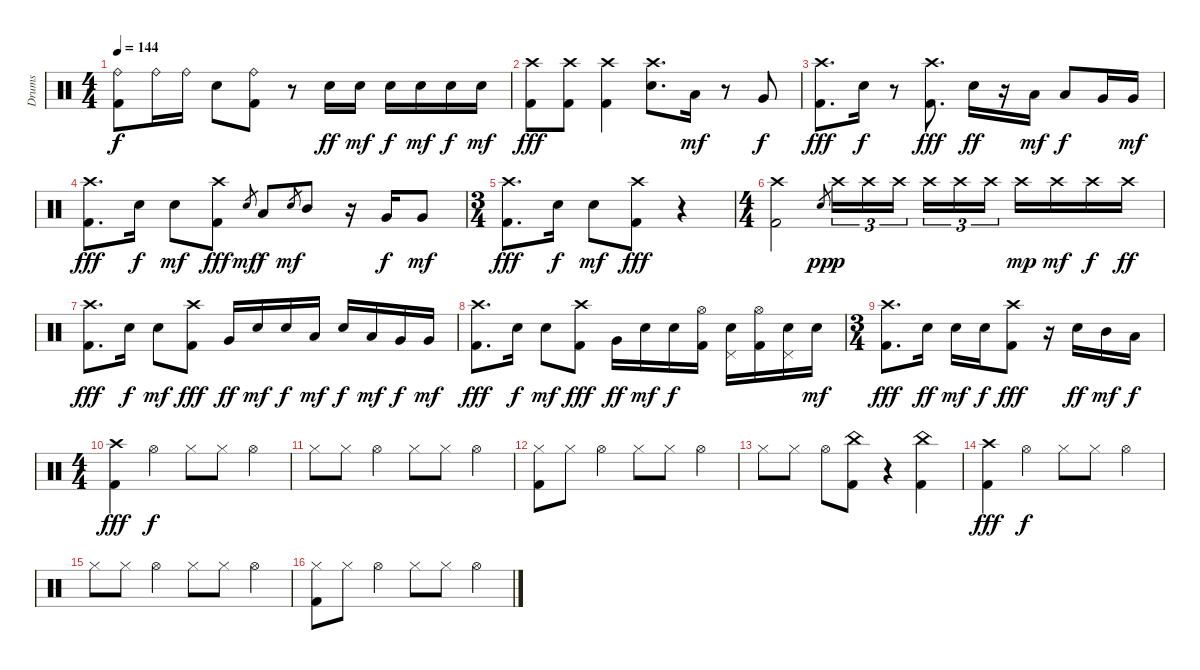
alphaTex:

\track ("Drums" "Drums") {instrument percussion}
\staff {score}
\articulation defaults
\ts (4 4)
\tempo 144
\clef neutral
\ks c
("Ride (bell)" "Kick (hit) 2").8{dy f} "Ride (bell)".16 "Ride (bell)".16 "Snare (hit) 2".8 ("Ride (bell)" "Kick (hit) 2").8 r.8 "Snare (hit) 2".16{dy ff} "Snare (hit) 2".16{dy mf} "Snare (hit) 2".16{dy f} "Snare (hit) 2".16{dy mf} "Snare (hit) 2".16{dy f} "Snare (hit) 2".16{dy mf} |
("Crash high (hit)" "Kick (hit) 2").8{dy fff} ("Crash high (hit)" "Kick (hit) 2").8 ("Crash high (hit)" "Kick (hit) 2").4 ("Crash high (hit)" "Snare (hit) 2").8{d} "Low Tom (hit)".16{dy mf} r.8 "Very Low Tom (hit)".8{dy f} |
("Crash high (hit)" "Kick (hit) 2").8{d dy fff} "Snare (hit) 2".16{dy f} r.8 ("Crash high (hit)" "Kick (hit) 2").8{d dy fff} "Snare (hit) 2".16{dy ff} r.16 "Low Tom (hit)".16{dy mf} "Low Tom (hit)".8{dy f} "Very Low Tom (hit)".16 "Very Low Tom (hit)".16{dy mf} |
("Crash high (hit)" "Kick (hit) 2").8{d dy fff} "Snare (hit) 2".16{dy f} "Snare (hit) 2".8{dy mf} ("Crash high (hit)" "Kick (hit) 2").8{dy fff} "Snare (hit)".8{gr dy mf} "Low Floor Tom (hit)".8{dy f} "Snare (hit)".8{gr dy mf} "Mid Tom (hit)".8 r.16 "Very Low Tom (hit)".16{dy f} "Very Low Tom (hit)".8{dy mf} |
\ts (3 4)
("Crash high (hit)" "Kick (hit) 2").8{d dy fff} "Snare (hit) 2".16{dy f} "Snare (hit) 2".8{dy mf} ("Crash high (hit)" "Kick (hit) 2").8{dy fff} r.4 |
\ts (4 4)
("Crash high (hit)" "Kick (hit) 2").2 "Snare (hit)".8{gr dy pp} "Crash high (hit)".16{tu (3 2) dy p} "Crash high (hit)".16{tu (3 2)} "Crash high (hit)".16{tu (3 2)} "Crash high (hit)".16{tu (3 2)} "Crash high (hit)".16{tu (3 2)} "Crash high (hit)".16{tu (3 2)} "Crash high (hit)".16{dy mp} "Crash high (hit)".16{dy mf} "Crash high (hit)".16{dy f} "Crash high (hit)".16{dy ff} |
("Crash high (hit)" "Kick (hit) 2").8{d dy fff} "Snare (hit) 2".16{dy f} "Snare (hit) 2".8{dy mf} ("Crash high (hit)" "Kick (hit) 2").8{dy fff} "Very Low Tom (hit)".16{dy ff} "Snare (hit) 2".16{dy mf} "Snare (hit) 2".16{dy f} "Low Tom (hit)".16{dy mf} "Snare (hit) 2".16{dy f} "Low Tom (hit)".16{dy mf} "Very Low Tom (hit)".16{dy f} "Very Low Tom (hit)".16{dy mf} |
("Crash high (hit)" "Kick (hit) 2").8{d dy fff} "Snare (hit) 2".16{dy f} "Snare (hit) 2".8{dy mf} ("Crash high (hit)" "Kick (hit) 2").8{dy fff} "Very Low Tom (hit)".16{dy ff} "Snare (hit) 2".16{dy mf} "Snare (hit) 2".16{dy f} ("Hi-Hat (open)" "Kick (hit) 2").16 ("Pedal Hi-Hat (hit)" "Snare (hit) 2").16 ("Hi-Hat (open)" "Kick (hit) 2").16 ("Pedal Hi-Hat (hit)" "Snare (hit) 2").16 "Snare (hit) 2".16{dy mf} |
\ts (3 4)
("Crash high (hit)" "Kick (hit) 2").8{d dy fff} "Snare (hit) 2".16{dy ff} "Snare (hit) 2".16{dy mf} "Snare (hit) 2".16{dy f} ("Crash high (hit)" "Kick (hit) 2").8{dy fff} r.16 "Snare (hit) 2".16{dy ff} "Mid Tom (hit)".16{dy mf} "Low Floor Tom (hit)".16{dy f} |
\ts (4 4)
("Crash high (hit)" "Kick (hit) 2").4{dy fff} "Hi-Hat (open)".4{dy f} "Hi-Hat (closed)".8 "Hi-Hat (closed)".8 "Hi-Hat (open)".4 |
"Hi-Hat (closed)".8 "Hi-Hat (closed)".8 "Hi-Hat (open)".4 "Hi-Hat (closed)".8 "Hi-Hat (closed)".8 "Hi-Hat (open)".4 |
("Hi-Hat (closed)" "Kick (hit) 2").8 "Hi-Hat (closed)".8 "Hi-Hat (open)".4 "Hi-Hat (closed)".8 "Hi-Hat (closed)".8 "Hi-Hat (open)".4 |
"Hi-Hat (closed)".8 "Hi-Hat (closed)".8 "Hi-Hat (open)".8 ("China (hit)" "Kick (hit) 2").8 r.4 ("China (hit)" "Kick (hit) 2").4 |
("Crash high (hit)" "Kick (hit) 2").4{dy fff} "Hi-Hat (open)".4{dy f} "Hi-Hat (closed)".8 "Hi-Hat (closed)".8 "Hi-Hat (open)".4 |
"Hi-Hat (closed)".8 "Hi-Hat (closed)".8 "Hi-Hat (open)".4 "Hi-Hat (closed)".8 "Hi-Hat (closed)".8 "Hi-Hat (open)".4 |
("Hi-Hat (closed)" "Kick (hit) 2").8 "Hi-Hat (closed)".8 "Hi-Hat (open)".4 "Hi-Hat (closed)".8 "Hi-Hat (closed)".8 "Hi-Hat (open)".4
